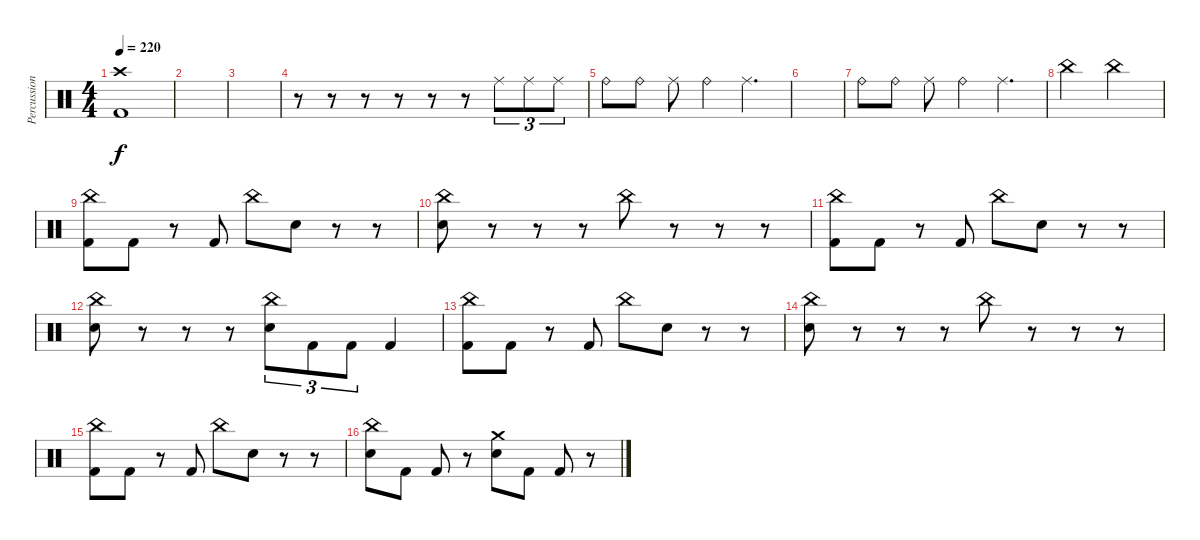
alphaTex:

\track ("Percussion" "Percussion") {instrument percussion}
\staff {score}
\articulation defaults
\ts (4 4)
\tempo 220
\clef neutral
\ks c
("Crash high (hit)" "Kick (hit) 2").1{dy f} |
|
|
r.8 r.8 r.8 r.8 r.8 r.8 "Ride (middle)".8{tu (3 2)} "Ride (middle)".8{tu (3 2)} "Ride (middle)".8{tu (3 2)} |
"Ride (bell)".8 "Ride (bell)".8 "Ride (middle)".8 "Ride (bell)".4 "Ride (middle)".4{d} |
|
"Ride (bell)".8 "Ride (bell)".8 "Ride (middle)".8 "Ride (bell)".4 "Ride (middle)".4{d} |
"China (hit)".2 "China (hit)".2 |
("China (hit)" "Kick (hit) 2").8 "Kick (hit) 2".8 r.8 "Kick (hit) 2".8 "China (hit)".8 "Electric Snare (hit)".8 r.8 r.8 |
("China (hit)" "Electric Snare (hit)").8 r.8 r.8 r.8 "China (hit)".8 r.8 r.8 r.8 |
("China (hit)" "Kick (hit) 2").8 "Kick (hit) 2".8 r.8 "Kick (hit) 2".8 "China (hit)".8 "Electric Snare (hit)".8 r.8 r.8 |
("China (hit)" "Electric Snare (hit)").8 r.8 r.8 r.8 ("China (hit)" "Electric Snare (hit)").8{tu (3 2)} "Kick (hit) 2".8{tu (3 2)} "Kick (hit) 2".8{tu (3 2)} "Kick (hit) 2".4 |
("China (hit)" "Kick (hit) 2").8 "Kick (hit) 2".8 r.8 "Kick (hit) 2".8 "China (hit)".8 "Electric Snare (hit)".8 r.8 r.8 |
("China (hit)" "Electric Snare (hit)").8 r.8 r.8 r.8 "China (hit)".8 r.8 r.8 r.8 |
("China (hit)" "Kick (hit) 2").8 "Kick (hit) 2".8 r.8 "Kick (hit) 2".8 "China (hit)".8 "Electric Snare (hit)".8 r.8 r.8 |
("China (hit)" "Electric Snare (hit)").8 "Kick (hit) 2".8 "Kick (hit) 2".8 r.8 ("Crash medium (hit)" "Electric Snare (hit)").8 "Kick (hit) 2".8 "Kick (hit) 2".8 r.8
